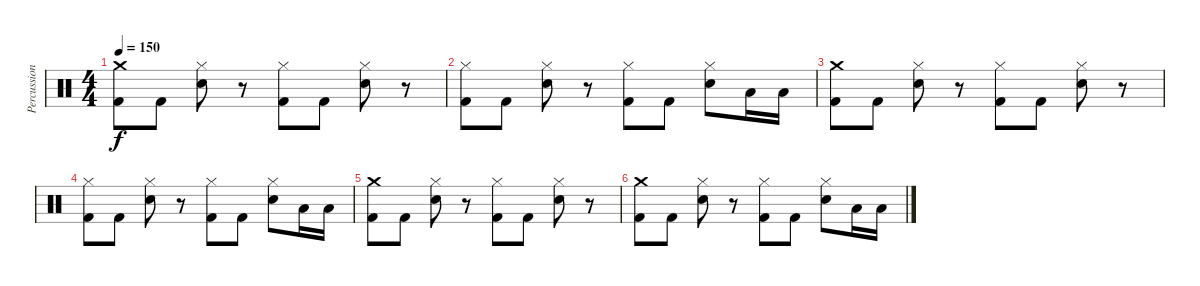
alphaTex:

\track ("Percussions" "Percussion") {instrument percussion}
\staff {score}
\articulation defaults
\ts (4 4)
\tempo 150
\clef neutral
\ks c
("Crash medium (hit)" "Kick (hit) 2").8{dy f} "Kick (hit) 2".8 ("Hi-Hat (closed)" "Snare (hit) 2").8 r.8 ("Hi-Hat (closed)" "Kick (hit) 2").8 "Kick (hit) 2".8 ("Hi-Hat (closed)" "Snare (hit) 2").8 r.8 |
("Hi-Hat (closed)" "Kick (hit) 2").8 "Kick (hit) 2".8 ("Hi-Hat (closed)" "Snare (hit) 2").8 r.8 ("Hi-Hat (closed)" "Kick (hit) 2").8 "Kick (hit) 2".8 ("Hi-Hat (closed)" "Snare (hit) 2").8 "Low Tom (hit)".16 "Low Tom (hit)".16 |
("Crash medium (hit)" "Kick (hit) 2").8 "Kick (hit) 2".8 ("Hi-Hat (closed)" "Snare (hit) 2").8 r.8 ("Hi-Hat (closed)" "Kick (hit) 2").8 "Kick (hit) 2".8 ("Hi-Hat (closed)" "Snare (hit) 2").8 r.8 |
("Hi-Hat (closed)" "Kick (hit) 2").8 "Kick (hit) 2".8 ("Hi-Hat (closed)" "Snare (hit) 2").8 r.8 ("Hi-Hat (closed)" "Kick (hit) 2").8 "Kick (hit) 2".8 ("Hi-Hat (closed)" "Snare (hit) 2").8 "Low Tom (hit)".16 "Low Tom (hit)".16 |
("Crash medium (hit)" "Kick (hit) 2").8 "Kick (hit) 2".8 ("Hi-Hat (closed)" "Snare (hit) 2").8 r.8 ("Hi-Hat (closed)" "Kick (hit) 2").8 "Kick (hit) 2".8 ("Hi-Hat (closed)" "Snare (hit) 2").8 r.8 |
("Crash medium (hit)" "Kick (hit) 2").8 "Kick (hit) 2".8 ("Hi-Hat (closed)" "Snare (hit) 2").8 r.8 ("Hi-Hat (closed)" "Kick (hit) 2").8 "Kick (hit) 2".8 ("Hi-Hat (closed)" "Snare (hit) 2").8 "Low Tom (hit)".16 "Low Tom (hit)".16
